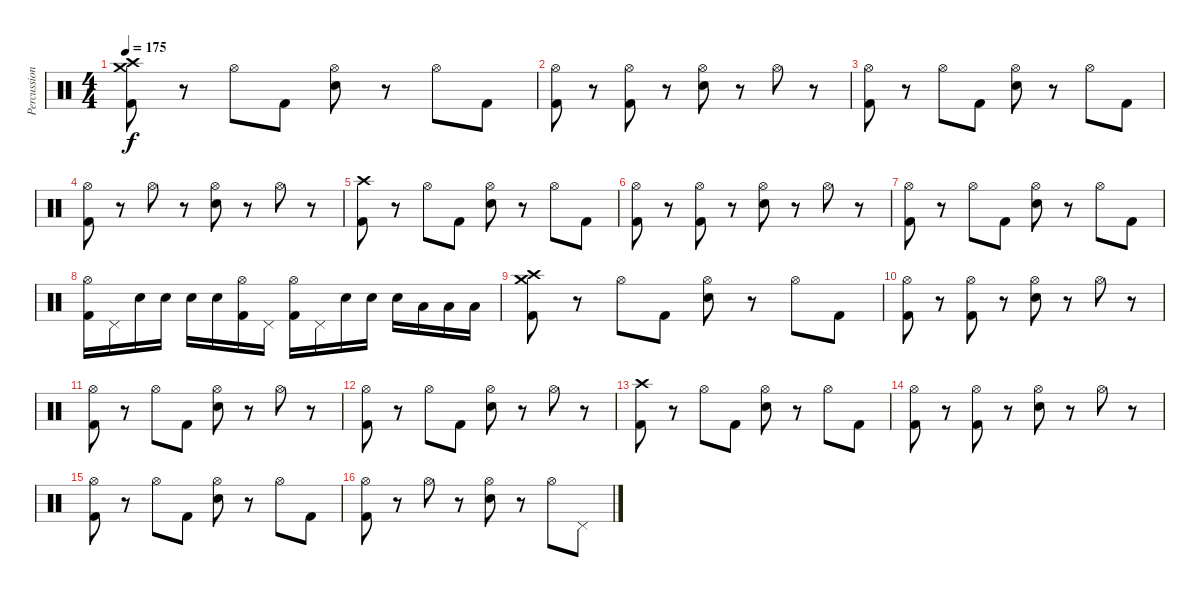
\track ("Percussion" "Percussion") {instrument percussion}
\staff {score}
\articulation defaults
\ts (4 4)
\tempo 175
\clef neutral
\ks c
("Kick (hit) 2" "Crash high (hit)" "Crash medium (hit)").8{dy f} r.8 "Hi-Hat (open)".8 "Kick (hit) 2".8 ("Electric Snare (hit)" "Hi-Hat (open)").8 r.8 "Hi-Hat (open)".8 "Kick (hit) 2".8 |
("Kick (hit) 2" "Hi-Hat (open)").8 r.8 ("Kick (hit) 2" "Hi-Hat (open)").8 r.8 ("Electric Snare (hit)" "Hi-Hat (open)").8 r.8 "Hi-Hat (open)".8 r.8 |
("Kick (hit) 2" "Hi-Hat (open)").8 r.8 "Hi-Hat (open)".8 "Kick (hit) 2".8 ("Electric Snare (hit)" "Hi-Hat (open)").8 r.8 "Hi-Hat (open)".8 "Kick (hit) 2".8 |
("Kick (hit) 2" "Hi-Hat (open)").8 r.8 "Hi-Hat (open)".8 r.8 ("Electric Snare (hit)" "Hi-Hat (open)").8 r.8 "Hi-Hat (open)".8 r.8 |
("Kick (hit) 2" "Crash high (hit)").8 r.8 "Hi-Hat (open)".8 "Kick (hit) 2".8 ("Electric Snare (hit)" "Hi-Hat (open)").8 r.8 "Hi-Hat (open)".8 "Kick (hit) 2".8 |
("Kick (hit) 2" "Hi-Hat (open)").8 r.8 ("Kick (hit) 2" "Hi-Hat (open)").8 r.8 ("Electric Snare (hit)" "Hi-Hat (open)").8 r.8 "Hi-Hat (open)".8 r.8 |
("Kick (hit) 2" "Hi-Hat (open)").8 r.8 "Hi-Hat (open)".8 "Kick (hit) 2".8 ("Electric Snare (hit)" "Hi-Hat (open)").8 r.8 "Hi-Hat (open)".8 "Kick (hit) 2".8 |
("Kick (hit) 2" "Hi-Hat (open)").16 "Pedal Hi-Hat (hit)".16 "Electric Snare (hit)".16 "Electric Snare (hit)".16 "Electric Snare (hit)".16 "Electric Snare (hit)".16 ("Kick (hit) 2" "Hi-Hat (open)").16 "Pedal Hi-Hat (hit)".16 ("Kick (hit) 2" "Hi-Hat (open)").16 "Pedal Hi-Hat (hit)".16 "Electric Snare (hit)".16 "Electric Snare (hit)".16 "Electric Snare (hit)".16 "Low Tom (hit)".16 "Low Tom (hit)".16 "Low Tom (hit)".16 |
("Kick (hit) 2" "Crash high (hit)" "Crash medium (hit)").8 r.8 "Hi-Hat (open)".8 "Kick (hit) 2".8 ("Electric Snare (hit)" "Hi-Hat (open)").8 r.8 "Hi-Hat (open)".8 "Kick (hit) 2".8 |
("Kick (hit) 2" "Hi-Hat (open)").8 r.8 ("Kick (hit) 2" "Hi-Hat (open)").8 r.8 ("Electric Snare (hit)" "Hi-Hat (open)").8 r.8 "Hi-Hat (open)".8 r.8 |
("Kick (hit) 2" "Hi-Hat (open)").8 r.8 "Hi-Hat (open)".8 "Kick (hit) 2".8 ("Electric Snare (hit)" "Hi-Hat (open)").8 r.8 "Hi-Hat (open)".8 r.8 |
("Kick (hit) 2" "Hi-Hat (open)").8 r.8 "Hi-Hat (open)".8 "Kick (hit) 2".8 ("Electric Snare (hit)" "Hi-Hat (open)").8 r.8 "Hi-Hat (open)".8 r.8 |
("Kick (hit) 2" "Crash high (hit)").8 r.8 "Hi-Hat (open)".8 "Kick (hit) 2".8 ("Electric Snare (hit)" "Hi-Hat (open)").8 r.8 "Hi-Hat (open)".8 "Kick (hit) 2".8 |
("Kick (hit) 2" "Hi-Hat (open)").8 r.8 ("Kick (hit) 2" "Hi-Hat (open)").8 r.8 ("Electric Snare (hit)" "Hi-Hat (open)").8 r.8 "Hi-Hat (open)".8 r.8 |
("Kick (hit) 2" "Hi-Hat (open)").8 r.8 "Hi-Hat (open)".8 "Kick (hit) 2".8 ("Electric Snare (hit)" "Hi-Hat (open)").8 r.8 "Hi-Hat (open)".8 "Kick (hit) 2".8 |
("Kick (hit) 2" "Hi-Hat (open)").8 r.8 "Hi-Hat (open)".8 r.8 ("Electric Snare (hit)" "Hi-Hat (open)").8 r.8 "Hi-Hat (open)".8 "Pedal Hi-Hat (hit)".8
